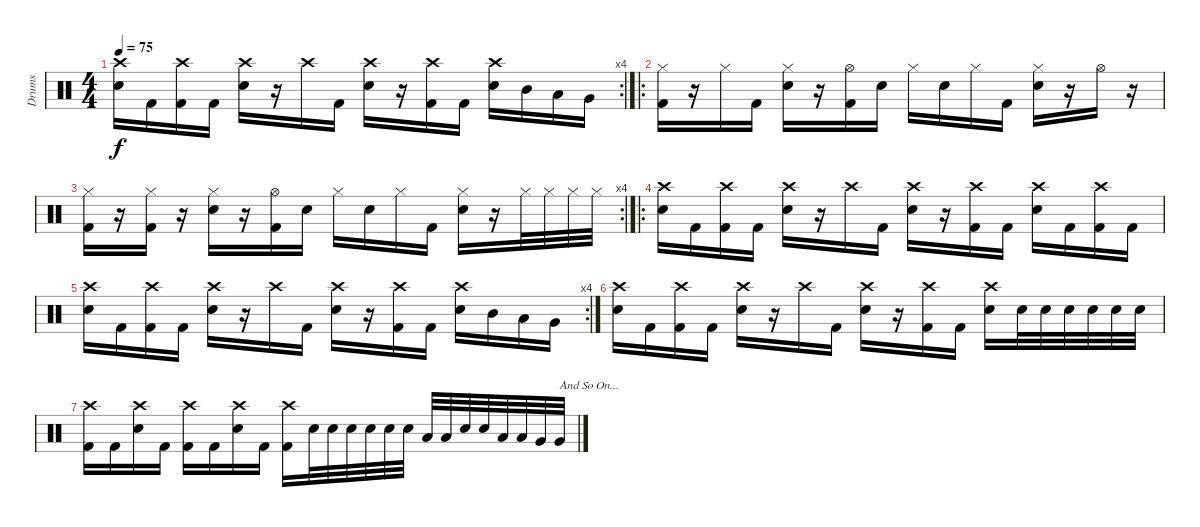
\track ("Drums" "Drums") {instrument percussion}
\staff {score}
\articulation defaults
\rc 4
\ts (4 4)
\tempo 75
\clef neutral
\ks c
("Crash high (hit)" "Electric Snare (hit)").16{dy f} "Kick (hit) 2".16 ("Crash high (hit)" "Kick (hit) 2").16 "Kick (hit) 2".16 ("Crash high (hit)" "Electric Snare (hit)").16 r.16 "Crash high (hit)".16 "Kick (hit) 2".16 ("Crash high (hit)" "Electric Snare (hit)").16 r.16 ("Crash high (hit)" "Kick (hit) 2").16 "Kick (hit) 2".16 ("Crash high (hit)" "Electric Snare (hit)").16 "Mid Tom (hit)".16 "Low Tom (hit)".16 "Very Low Tom (hit)".16 |
\ro
("Hi-Hat (closed)" "Kick (hit) 2").16 r.16 "Hi-Hat (closed)".16 "Kick (hit) 2".16 ("Hi-Hat (closed)" "Electric Snare (hit)").16 r.16 ("Hi-Hat (open)" "Kick (hit) 2").16 "Electric Snare (hit)".16 "Hi-Hat (closed)".16 "Electric Snare (hit)".16 "Hi-Hat (closed)".16 "Kick (hit) 2".16 ("Hi-Hat (closed)" "Electric Snare (hit)").16 r.16 "Hi-Hat (open)".16 r.16 |
\rc 4
("Hi-Hat (closed)" "Kick (hit) 2").16 r.16 ("Hi-Hat (closed)" "Kick (hit) 2").16 r.16 ("Hi-Hat (closed)" "Electric Snare (hit)").16 r.16 ("Hi-Hat (open)" "Kick (hit) 2").16 "Electric Snare (hit)".16 "Hi-Hat (closed)".16 "Electric Snare (hit)".16 "Hi-Hat (closed)".16 "Kick (hit) 2".16 ("Hi-Hat (closed)" "Electric Snare (hit)").16 r.16 "Hi-Hat (closed)".32 "Hi-Hat (closed)".32 "Hi-Hat (closed)".32 "Hi-Hat (closed)".32 |
\ro
("Crash high (hit)" "Electric Snare (hit)").16 "Kick (hit) 2".16 ("Crash high (hit)" "Kick (hit) 2").16 "Kick (hit) 2".16 ("Crash high (hit)" "Electric Snare (hit)").16 r.16 "Crash high (hit)".16 "Kick (hit) 2".16 ("Crash high (hit)" "Electric Snare (hit)").16 r.16 ("Crash high (hit)" "Kick (hit) 2").16 "Kick (hit) 2".16 ("Crash high (hit)" "Electric Snare (hit)").16 "Kick (hit) 2".16 ("Crash high (hit)" "Kick (hit) 2").16 "Kick (hit) 2".16 |
\rc 4
("Crash high (hit)" "Electric Snare (hit)").16 "Kick (hit) 2".16 ("Crash high (hit)" "Kick (hit) 2").16 "Kick (hit) 2".16 ("Crash high (hit)" "Electric Snare (hit)").16 r.16 "Crash high (hit)".16 "Kick (hit) 2".16 ("Crash high (hit)" "Electric Snare (hit)").16 r.16 ("Crash high (hit)" "Kick (hit) 2").16 "Kick (hit) 2".16 ("Crash high (hit)" "Electric Snare (hit)").16 "Mid Tom (hit)".16 "Low Tom (hit)".16 "Very Low Tom (hit)".16 |
("Crash high (hit)" "Electric Snare (hit)").16 "Kick (hit) 2".16 ("Crash high (hit)" "Kick (hit) 2").16 "Kick (hit) 2".16 ("Crash high (hit)" "Electric Snare (hit)").16 r.16 "Crash high (hit)".16 "Kick (hit) 2".16 ("Crash high (hit)" "Electric Snare (hit)").16 r.16 ("Crash high (hit)" "Kick (hit) 2").16 "Kick (hit) 2".16 ("Crash high (hit)" "Electric Snare (hit)").16 "Electric Snare (hit)".32 "Electric Snare (hit)".32 "Electric Snare (hit)".32 "Electric Snare (hit)".32 "Electric Snare (hit)".32 "Electric Snare (hit)".32 |
("Crash high (hit)" "Kick (hit) 2").16 "Kick (hit) 2".16 ("Crash high (hit)" "Electric Snare (hit)").16 "Kick (hit) 2".16 ("Crash high (hit)" "Kick (hit) 2").16 "Kick (hit) 2".16 ("Crash high (hit)" "Electric Snare (hit)").16 "Kick (hit) 2".16 ("Crash high (hit)" "Kick (hit) 2").16 "Electric Snare (hit)".32 "Electric Snare (hit)".32 "Electric Snare (hit)".32 "Electric Snare (hit)".32 "Electric Snare (hit)".32 "Electric Snare (hit)".32 "Low Tom (hit)".32 "Low Tom (hit)".32 "Electric Snare (hit)".32 "Electric Snare (hit)".32 "Low Tom (hit)".32 "Low Tom (hit)".32 "Very Low Tom (hit)".32 "Very Low Tom (hit)".32{txt "And So On..."}
